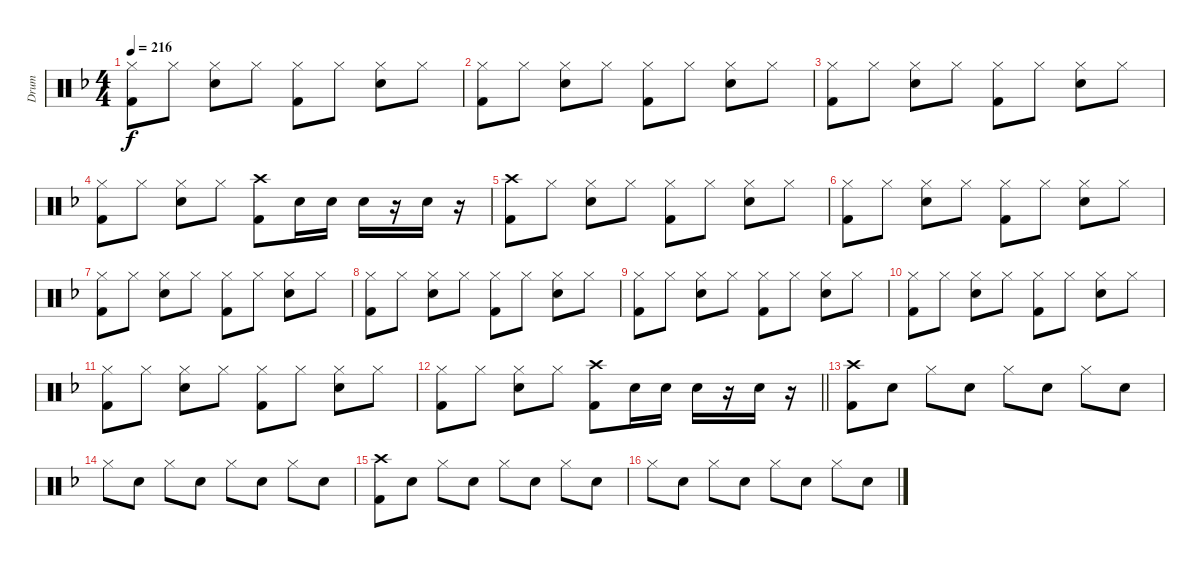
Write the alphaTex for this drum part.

\track ("Drum" "Drum") {instrument percussion}
\staff {score}
\articulation defaults
\ts (4 4)
\tempo 216
\clef neutral
\ks f
("Hi-Hat (closed)" "Kick (hit) 2").8{dy f} "Hi-Hat (closed)".8 ("Hi-Hat (closed)" "Snare (hit) 2").8 "Hi-Hat (closed)".8 ("Hi-Hat (closed)" "Kick (hit) 2").8 "Hi-Hat (closed)".8 ("Hi-Hat (closed)" "Snare (hit) 2").8 "Hi-Hat (closed)".8 |
("Hi-Hat (closed)" "Kick (hit) 2").8 "Hi-Hat (closed)".8 ("Hi-Hat (closed)" "Snare (hit) 2").8 "Hi-Hat (closed)".8 ("Hi-Hat (closed)" "Kick (hit) 2").8 "Hi-Hat (closed)".8 ("Hi-Hat (closed)" "Snare (hit) 2").8 "Hi-Hat (closed)".8 |
("Hi-Hat (closed)" "Kick (hit) 2").8 "Hi-Hat (closed)".8 ("Hi-Hat (closed)" "Snare (hit) 2").8 "Hi-Hat (closed)".8 ("Hi-Hat (closed)" "Kick (hit) 2").8 "Hi-Hat (closed)".8 ("Hi-Hat (closed)" "Snare (hit) 2").8 "Hi-Hat (closed)".8 |
("Hi-Hat (closed)" "Kick (hit) 2").8 "Hi-Hat (closed)".8 ("Hi-Hat (closed)" "Snare (hit) 2").8 "Hi-Hat (closed)".8 ("Crash high (hit)" "Kick (hit) 2").8 "Snare (hit) 2".16 "Snare (hit) 2".16 "Snare (hit) 2".16 r.16 "Snare (hit) 2".16 r.16 |
("Crash high (hit)" "Kick (hit) 2").8 "Hi-Hat (closed)".8 ("Hi-Hat (closed)" "Snare (hit) 2").8 "Hi-Hat (closed)".8 ("Hi-Hat (closed)" "Kick (hit) 2").8 "Hi-Hat (closed)".8 ("Hi-Hat (closed)" "Snare (hit) 2").8 "Hi-Hat (closed)".8 |
("Hi-Hat (closed)" "Kick (hit) 2").8 "Hi-Hat (closed)".8 ("Hi-Hat (closed)" "Snare (hit) 2").8 "Hi-Hat (closed)".8 ("Hi-Hat (closed)" "Kick (hit) 2").8 "Hi-Hat (closed)".8 ("Hi-Hat (closed)" "Snare (hit) 2").8 "Hi-Hat (closed)".8 |
("Hi-Hat (closed)" "Kick (hit) 2").8 "Hi-Hat (closed)".8 ("Hi-Hat (closed)" "Snare (hit) 2").8 "Hi-Hat (closed)".8 ("Hi-Hat (closed)" "Kick (hit) 2").8 "Hi-Hat (closed)".8 ("Hi-Hat (closed)" "Snare (hit) 2").8 "Hi-Hat (closed)".8 |
("Hi-Hat (closed)" "Kick (hit) 2").8 "Hi-Hat (closed)".8 ("Hi-Hat (closed)" "Snare (hit) 2").8 "Hi-Hat (closed)".8 ("Hi-Hat (closed)" "Kick (hit) 2").8 "Hi-Hat (closed)".8 ("Hi-Hat (closed)" "Snare (hit) 2").8 "Hi-Hat (closed)".8 |
("Hi-Hat (closed)" "Kick (hit) 2").8 "Hi-Hat (closed)".8 ("Hi-Hat (closed)" "Snare (hit) 2").8 "Hi-Hat (closed)".8 ("Hi-Hat (closed)" "Kick (hit) 2").8 "Hi-Hat (closed)".8 ("Hi-Hat (closed)" "Snare (hit) 2").8 "Hi-Hat (closed)".8 |
("Hi-Hat (closed)" "Kick (hit) 2").8 "Hi-Hat (closed)".8 ("Hi-Hat (closed)" "Snare (hit) 2").8 "Hi-Hat (closed)".8 ("Hi-Hat (closed)" "Kick (hit) 2").8 "Hi-Hat (closed)".8 ("Hi-Hat (closed)" "Snare (hit) 2").8 "Hi-Hat (closed)".8 |
("Hi-Hat (closed)" "Kick (hit) 2").8 "Hi-Hat (closed)".8 ("Hi-Hat (closed)" "Snare (hit) 2").8 "Hi-Hat (closed)".8 ("Hi-Hat (closed)" "Kick (hit) 2").8 "Hi-Hat (closed)".8 ("Hi-Hat (closed)" "Snare (hit) 2").8 "Hi-Hat (closed)".8 |
\barLineRight lightlight
("Hi-Hat (closed)" "Kick (hit) 2").8 "Hi-Hat (closed)".8 ("Hi-Hat (closed)" "Snare (hit) 2").8 "Hi-Hat (closed)".8 ("Crash high (hit)" "Kick (hit) 2").8 "Snare (hit) 2".16 "Snare (hit) 2".16 "Snare (hit) 2".16 r.16 "Snare (hit) 2".16 r.16 |
("Crash high (hit)" "Kick (hit) 2").8 "Snare (hit) 2".8 "Hi-Hat (closed)".8 "Snare (hit) 2".8 "Hi-Hat (closed)".8 "Snare (hit) 2".8 "Hi-Hat (closed)".8 "Snare (hit) 2".8 |
"Hi-Hat (closed)".8 "Snare (hit) 2".8 "Hi-Hat (closed)".8 "Snare (hit) 2".8 "Hi-Hat (closed)".8 "Snare (hit) 2".8 "Hi-Hat (closed)".8 "Snare (hit) 2".8 |
("Crash high (hit)" "Kick (hit) 2").8 "Snare (hit) 2".8 "Hi-Hat (closed)".8 "Snare (hit) 2".8 "Hi-Hat (closed)".8 "Snare (hit) 2".8 "Hi-Hat (closed)".8 "Snare (hit) 2".8 |
"Hi-Hat (closed)".8 "Snare (hit) 2".8 "Hi-Hat (closed)".8 "Snare (hit) 2".8 "Hi-Hat (closed)".8 "Snare (hit) 2".8 "Hi-Hat (closed)".8 "Snare (hit) 2".8
